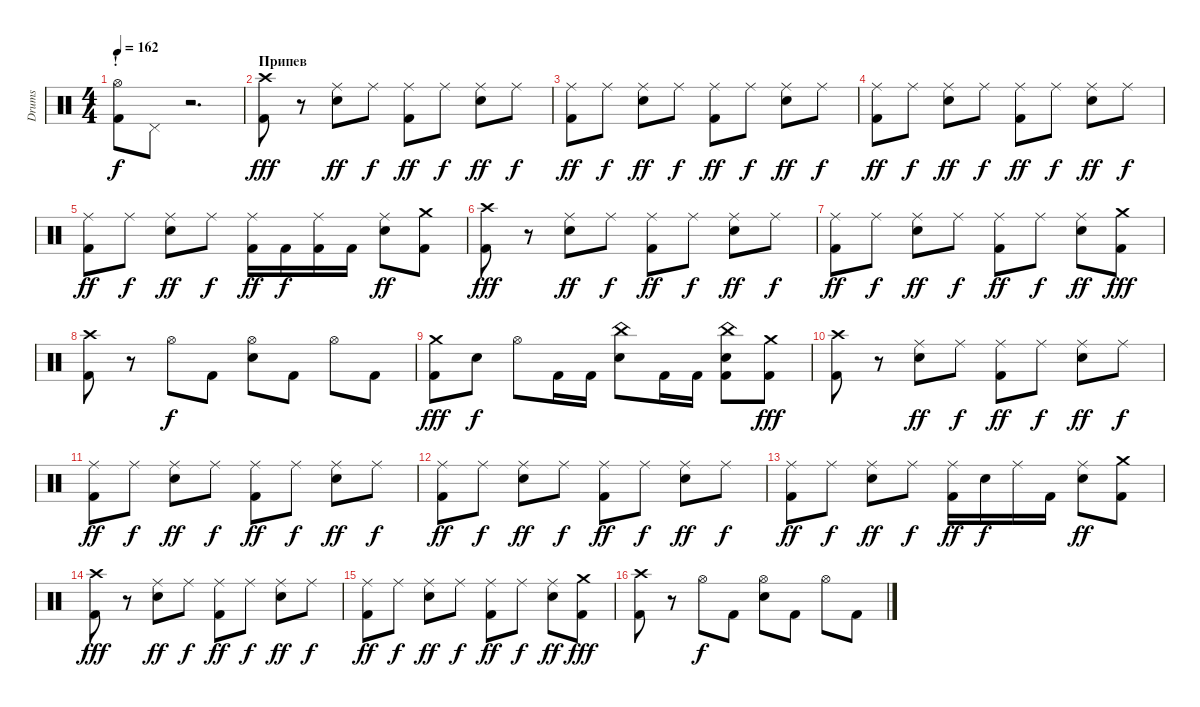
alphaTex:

\track ("Drums" "Drums") {instrument percussion}
\staff {score}
\articulation defaults
\ts (4 4)
\section ("" "!")
\tempo 162
\clef neutral
\ks c
("Hi-Hat (open)" "Kick (hit) 2").8{dy f} "Pedal Hi-Hat (hit)".8 r.2{d} |
\section ("" "Припев")
("Crash high (hit)" "Kick (hit) 2").8{dy fff} r.8 ("Ride (middle)" "Snare (hit) 2").8{dy ff} "Ride (middle)".8{dy f} ("Ride (middle)" "Kick (hit) 2").8{dy ff} "Ride (middle)".8{dy f} ("Ride (middle)" "Snare (hit) 2").8{dy ff} "Ride (middle)".8{dy f} |
("Ride (middle)" "Kick (hit) 2").8{dy ff} "Ride (middle)".8{dy f} ("Ride (middle)" "Snare (hit) 2").8{dy ff} "Ride (middle)".8{dy f} ("Ride (middle)" "Kick (hit) 2").8{dy ff} "Ride (middle)".8{dy f} ("Ride (middle)" "Snare (hit) 2").8{dy ff} "Ride (middle)".8{dy f} |
("Ride (middle)" "Kick (hit) 2").8{dy ff} "Ride (middle)".8{dy f} ("Ride (middle)" "Snare (hit) 2").8{dy ff} "Ride (middle)".8{dy f} ("Ride (middle)" "Kick (hit) 2").8{dy ff} "Ride (middle)".8{dy f} ("Ride (middle)" "Snare (hit) 2").8{dy ff} "Ride (middle)".8{dy f} |
("Ride (middle)" "Kick (hit) 2").8{dy ff} "Ride (middle)".8{dy f} ("Ride (middle)" "Snare (hit) 2").8{dy ff} "Ride (middle)".8{dy f} ("Ride (middle)" "Kick (hit) 2").16{dy ff} "Kick (hit) 2".16{dy f} ("Ride (middle)" "Kick (hit) 2").16 "Kick (hit) 2".16 ("Ride (middle)" "Snare (hit) 2").8{dy ff} ("Crash medium (hit)" "Kick (hit) 2").8 |
("Crash high (hit)" "Kick (hit) 2").8{dy fff} r.8 ("Ride (middle)" "Snare (hit) 2").8{dy ff} "Ride (middle)".8{dy f} ("Ride (middle)" "Kick (hit) 2").8{dy ff} "Ride (middle)".8{dy f} ("Ride (middle)" "Snare (hit) 2").8{dy ff} "Ride (middle)".8{dy f} |
("Ride (middle)" "Kick (hit) 2").8{dy ff} "Ride (middle)".8{dy f} ("Ride (middle)" "Snare (hit) 2").8{dy ff} "Ride (middle)".8{dy f} ("Ride (middle)" "Kick (hit) 2").8{dy ff} "Ride (middle)".8{dy f} ("Ride (middle)" "Snare (hit) 2").8{dy ff} ("Crash medium (hit)" "Kick (hit) 2").8{dy fff} |
("Crash high (hit)" "Kick (hit) 2").8 r.8 "Hi-Hat (open)".8{dy f} "Kick (hit) 2".8 ("Hi-Hat (open)" "Snare (hit) 2").8 "Kick (hit) 2".8 "Hi-Hat (open)".8 "Kick (hit) 2".8 |
("Crash medium (hit)" "Kick (hit) 2").8{dy fff} "Snare (hit) 2".8{dy f} "Hi-Hat (open)".8 "Kick (hit) 2".16 "Kick (hit) 2".16 ("China (hit)" "Snare (hit) 2").8 "Kick (hit) 2".16 "Kick (hit) 2".16 ("China (hit)" "Snare (hit) 2" "Kick (hit) 2").8 ("Crash medium (hit)" "Kick (hit) 2").8{dy fff} |
("Crash high (hit)" "Kick (hit) 2").8 r.8 ("Ride (middle)" "Snare (hit) 2").8{dy ff} "Ride (middle)".8{dy f} ("Ride (middle)" "Kick (hit) 2").8{dy ff} "Ride (middle)".8{dy f} ("Ride (middle)" "Snare (hit) 2").8{dy ff} "Ride (middle)".8{dy f} |
("Ride (middle)" "Kick (hit) 2").8{dy ff} "Ride (middle)".8{dy f} ("Ride (middle)" "Snare (hit) 2").8{dy ff} "Ride (middle)".8{dy f} ("Ride (middle)" "Kick (hit) 2").8{dy ff} "Ride (middle)".8{dy f} ("Ride (middle)" "Snare (hit) 2").8{dy ff} "Ride (middle)".8{dy f} |
("Ride (middle)" "Kick (hit) 2").8{dy ff} "Ride (middle)".8{dy f} ("Ride (middle)" "Snare (hit) 2").8{dy ff} "Ride (middle)".8{dy f} ("Ride (middle)" "Kick (hit) 2").8{dy ff} "Ride (middle)".8{dy f} ("Ride (middle)" "Snare (hit) 2").8{dy ff} "Ride (middle)".8{dy f} |
("Ride (middle)" "Kick (hit) 2").8{dy ff} "Ride (middle)".8{dy f} ("Ride (middle)" "Snare (hit) 2").8{dy ff} "Ride (middle)".8{dy f} ("Ride (middle)" "Kick (hit) 2").16{dy ff} "Snare (hit) 2".16{dy f} "Ride (middle)".16 "Kick (hit) 2".16 ("Ride (middle)" "Snare (hit) 2").8{dy ff} ("Crash medium (hit)" "Kick (hit) 2").8 |
("Crash high (hit)" "Kick (hit) 2").8{dy fff} r.8 ("Ride (middle)" "Snare (hit) 2").8{dy ff} "Ride (middle)".8{dy f} ("Ride (middle)" "Kick (hit) 2").8{dy ff} "Ride (middle)".8{dy f} ("Ride (middle)" "Snare (hit) 2").8{dy ff} "Ride (middle)".8{dy f} |
("Ride (middle)" "Kick (hit) 2").8{dy ff} "Ride (middle)".8{dy f} ("Ride (middle)" "Snare (hit) 2").8{dy ff} "Ride (middle)".8{dy f} ("Ride (middle)" "Kick (hit) 2").8{dy ff} "Ride (middle)".8{dy f} ("Ride (middle)" "Snare (hit) 2").8{dy ff} ("Crash medium (hit)" "Kick (hit) 2").8{dy fff} |
("Crash high (hit)" "Kick (hit) 2").8 r.8 "Hi-Hat (open)".8{dy f} "Kick (hit) 2".8 ("Hi-Hat (open)" "Snare (hit) 2").8 "Kick (hit) 2".8 "Hi-Hat (open)".8 "Kick (hit) 2".8
